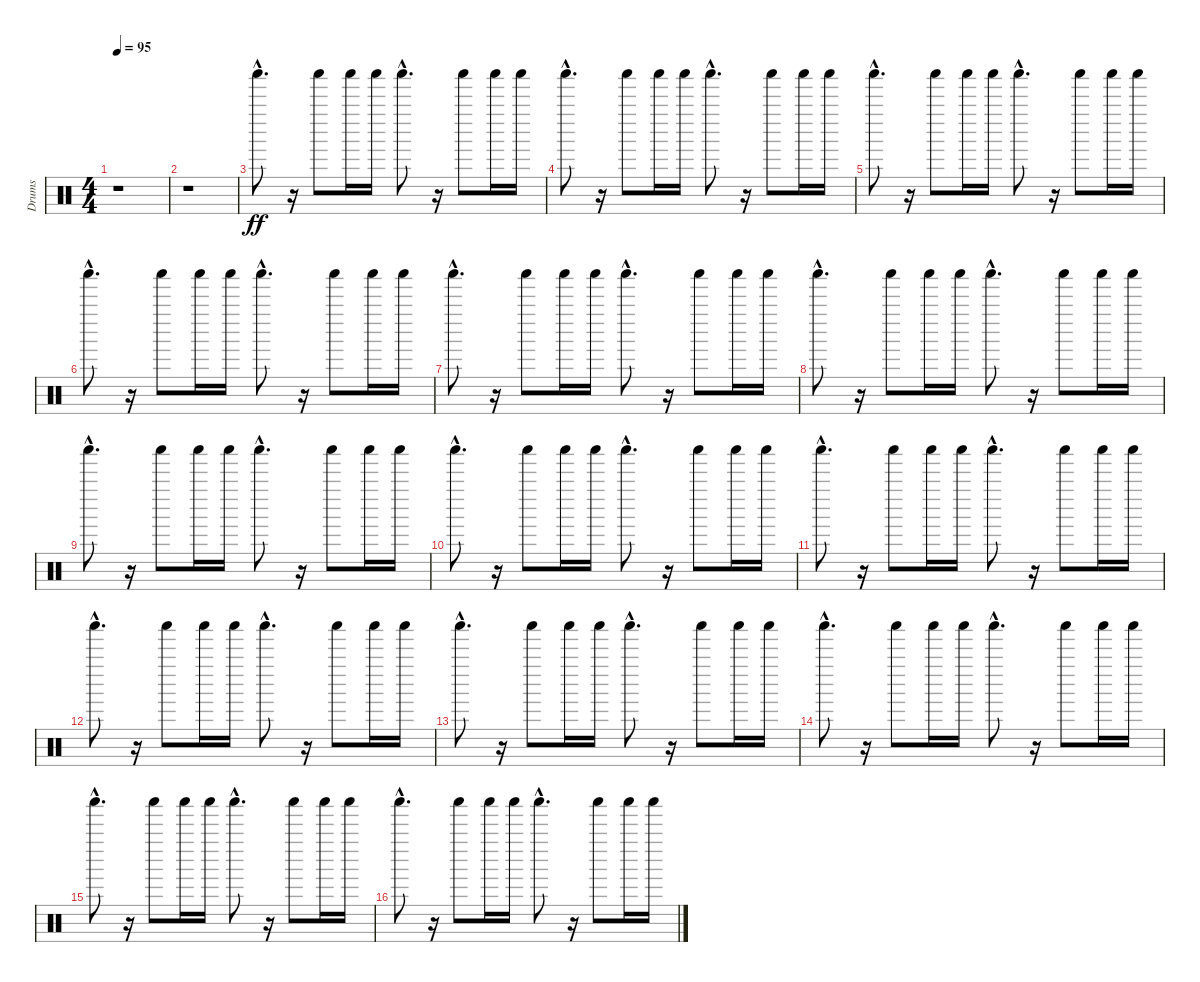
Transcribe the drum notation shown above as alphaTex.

\track ("Drums" "Drums") {instrument percussion}
\staff {score}
\articulation defaults
\ts (4 4)
\tempo 95
\clef neutral
\ks c
r.1{dy ff} |
r.1 |
"Shaker (hit)"{hac}.8{d} r.16 "Shaker (hit)".8 "Shaker (hit)".16 "Shaker (hit)".16 "Shaker (hit)"{hac}.8{d} r.16 "Shaker (hit)".8 "Shaker (hit)".16 "Shaker (hit)".16 |
"Shaker (hit)"{hac}.8{d} r.16 "Shaker (hit)".8 "Shaker (hit)".16 "Shaker (hit)".16 "Shaker (hit)"{hac}.8{d} r.16 "Shaker (hit)".8 "Shaker (hit)".16 "Shaker (hit)".16 |
"Shaker (hit)"{hac}.8{d} r.16 "Shaker (hit)".8 "Shaker (hit)".16 "Shaker (hit)".16 "Shaker (hit)"{hac}.8{d} r.16 "Shaker (hit)".8 "Shaker (hit)".16 "Shaker (hit)".16 |
"Shaker (hit)"{hac}.8{d} r.16 "Shaker (hit)".8 "Shaker (hit)".16 "Shaker (hit)".16 "Shaker (hit)"{hac}.8{d} r.16 "Shaker (hit)".8 "Shaker (hit)".16 "Shaker (hit)".16 |
"Shaker (hit)"{hac}.8{d} r.16 "Shaker (hit)".8 "Shaker (hit)".16 "Shaker (hit)".16 "Shaker (hit)"{hac}.8{d} r.16 "Shaker (hit)".8 "Shaker (hit)".16 "Shaker (hit)".16 |
"Shaker (hit)"{hac}.8{d} r.16 "Shaker (hit)".8 "Shaker (hit)".16 "Shaker (hit)".16 "Shaker (hit)"{hac}.8{d} r.16 "Shaker (hit)".8 "Shaker (hit)".16 "Shaker (hit)".16 |
"Shaker (hit)"{hac}.8{d} r.16 "Shaker (hit)".8 "Shaker (hit)".16 "Shaker (hit)".16 "Shaker (hit)"{hac}.8{d} r.16 "Shaker (hit)".8 "Shaker (hit)".16 "Shaker (hit)".16 |
"Shaker (hit)"{hac}.8{d} r.16 "Shaker (hit)".8 "Shaker (hit)".16 "Shaker (hit)".16 "Shaker (hit)"{hac}.8{d} r.16 "Shaker (hit)".8 "Shaker (hit)".16 "Shaker (hit)".16 |
"Shaker (hit)"{hac}.8{d} r.16 "Shaker (hit)".8 "Shaker (hit)".16 "Shaker (hit)".16 "Shaker (hit)"{hac}.8{d} r.16 "Shaker (hit)".8 "Shaker (hit)".16 "Shaker (hit)".16 |
"Shaker (hit)"{hac}.8{d} r.16 "Shaker (hit)".8 "Shaker (hit)".16 "Shaker (hit)".16 "Shaker (hit)"{hac}.8{d} r.16 "Shaker (hit)".8 "Shaker (hit)".16 "Shaker (hit)".16 |
"Shaker (hit)"{hac}.8{d} r.16 "Shaker (hit)".8 "Shaker (hit)".16 "Shaker (hit)".16 "Shaker (hit)"{hac}.8{d} r.16 "Shaker (hit)".8 "Shaker (hit)".16 "Shaker (hit)".16 |
"Shaker (hit)"{hac}.8{d} r.16 "Shaker (hit)".8 "Shaker (hit)".16 "Shaker (hit)".16 "Shaker (hit)"{hac}.8{d} r.16 "Shaker (hit)".8 "Shaker (hit)".16 "Shaker (hit)".16 |
"Shaker (hit)"{hac}.8{d} r.16 "Shaker (hit)".8 "Shaker (hit)".16 "Shaker (hit)".16 "Shaker (hit)"{hac}.8{d} r.16 "Shaker (hit)".8 "Shaker (hit)".16 "Shaker (hit)".16 |
"Shaker (hit)"{hac}.8{d} r.16 "Shaker (hit)".8 "Shaker (hit)".16 "Shaker (hit)".16 "Shaker (hit)"{hac}.8{d} r.16 "Shaker (hit)".8 "Shaker (hit)".16 "Shaker (hit)".16
